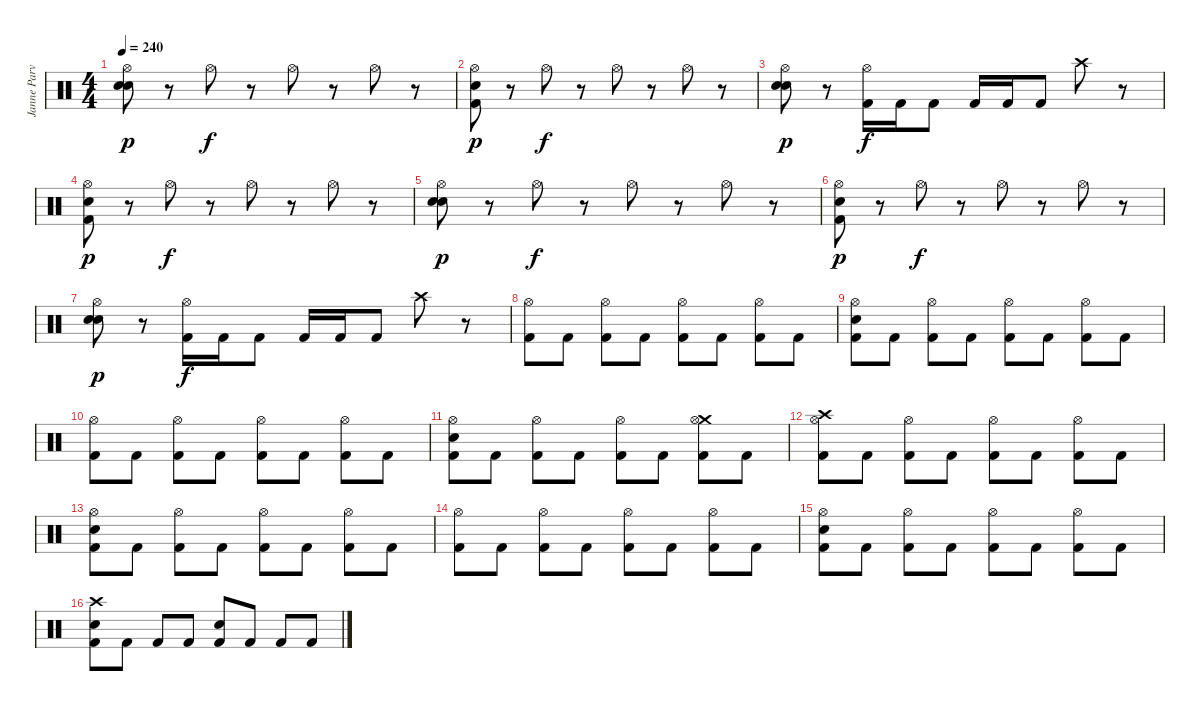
\track ("Janne Parviainen" "Janne Parv") {instrument percussion}
\staff {score}
\articulation defaults
\ts (4 4)
\tempo 240
\clef neutral
\ks c
("Electric Snare (hit)" "Hi-Hat (open)" "Snare (hit) 2").8{dy p} r.8 "Hi-Hat (open)".8{dy f} r.8 "Hi-Hat (open)".8 r.8 "Hi-Hat (open)".8 r.8 |
("Kick (hit) 2" "Hi-Hat (open)" "Snare (hit) 2").8{dy p} r.8 "Hi-Hat (open)".8{dy f} r.8 "Hi-Hat (open)".8 r.8 "Hi-Hat (open)".8 r.8 |
("Electric Snare (hit)" "Hi-Hat (open)" "Snare (hit) 2").8{dy p} r.8 ("Hi-Hat (open)" "Kick (hit) 2").16{dy f} "Kick (hit) 2".16 "Kick (hit) 2".8 "Kick (hit) 2".16 "Kick (hit) 2".16 "Kick (hit) 2".8 "Crash high (hit)".8 r.8 |
("Kick (hit) 2" "Hi-Hat (open)" "Snare (hit) 2").8{dy p} r.8 "Hi-Hat (open)".8{dy f} r.8 "Hi-Hat (open)".8 r.8 "Hi-Hat (open)".8 r.8 |
("Electric Snare (hit)" "Hi-Hat (open)" "Snare (hit) 2").8{dy p} r.8 "Hi-Hat (open)".8{dy f} r.8 "Hi-Hat (open)".8 r.8 "Hi-Hat (open)".8 r.8 |
("Kick (hit) 2" "Hi-Hat (open)" "Snare (hit) 2").8{dy p} r.8 "Hi-Hat (open)".8{dy f} r.8 "Hi-Hat (open)".8 r.8 "Hi-Hat (open)".8 r.8 |
("Electric Snare (hit)" "Hi-Hat (open)" "Snare (hit) 2").8{dy p} r.8 ("Hi-Hat (open)" "Kick (hit) 2").16{dy f} "Kick (hit) 2".16 "Kick (hit) 2".8 "Kick (hit) 2".16 "Kick (hit) 2".16 "Kick (hit) 2".8 "Crash high (hit)".8 r.8 |
("Hi-Hat (open)" "Kick (hit) 2").8 "Kick (hit) 2".8 ("Hi-Hat (open)" "Kick (hit) 2").8 "Kick (hit) 2".8 ("Hi-Hat (open)" "Kick (hit) 2").8 "Kick (hit) 2".8 ("Hi-Hat (open)" "Kick (hit) 2").8 "Kick (hit) 2".8 |
("Snare (hit) 2" "Hi-Hat (open)" "Kick (hit) 2").8 "Kick (hit) 2".8 ("Hi-Hat (open)" "Kick (hit) 2").8 "Kick (hit) 2".8 ("Hi-Hat (open)" "Kick (hit) 2").8 "Kick (hit) 2".8 ("Hi-Hat (open)" "Kick (hit) 2").8 "Kick (hit) 2".8 |
("Hi-Hat (open)" "Kick (hit) 2").8 "Kick (hit) 2".8 ("Hi-Hat (open)" "Kick (hit) 2").8 "Kick (hit) 2".8 ("Hi-Hat (open)" "Kick (hit) 2").8 "Kick (hit) 2".8 ("Hi-Hat (open)" "Kick (hit) 2").8 "Kick (hit) 2".8 |
("Snare (hit) 2" "Hi-Hat (open)" "Kick (hit) 2").8 "Kick (hit) 2".8 ("Hi-Hat (open)" "Kick (hit) 2").8 "Kick (hit) 2".8 ("Hi-Hat (open)" "Kick (hit) 2").8 "Kick (hit) 2".8 ("Crash medium (hit)" "Hi-Hat (open)" "Kick (hit) 2").8 "Kick (hit) 2".8 |
("Crash high (hit)" "Hi-Hat (open)" "Kick (hit) 2").8 "Kick (hit) 2".8 ("Hi-Hat (open)" "Kick (hit) 2").8 "Kick (hit) 2".8 ("Hi-Hat (open)" "Kick (hit) 2").8 "Kick (hit) 2".8 ("Hi-Hat (open)" "Kick (hit) 2").8 "Kick (hit) 2".8 |
("Snare (hit) 2" "Hi-Hat (open)" "Kick (hit) 2").8 "Kick (hit) 2".8 ("Hi-Hat (open)" "Kick (hit) 2").8 "Kick (hit) 2".8 ("Hi-Hat (open)" "Kick (hit) 2").8 "Kick (hit) 2".8 ("Hi-Hat (open)" "Kick (hit) 2").8 "Kick (hit) 2".8 |
("Hi-Hat (open)" "Kick (hit) 2").8 "Kick (hit) 2".8 ("Hi-Hat (open)" "Kick (hit) 2").8 "Kick (hit) 2".8 ("Hi-Hat (open)" "Kick (hit) 2").8 "Kick (hit) 2".8 ("Hi-Hat (open)" "Kick (hit) 2").8 "Kick (hit) 2".8 |
("Snare (hit) 2" "Hi-Hat (open)" "Kick (hit) 2").8 "Kick (hit) 2".8 ("Hi-Hat (open)" "Kick (hit) 2").8 "Kick (hit) 2".8 ("Hi-Hat (open)" "Kick (hit) 2").8 "Kick (hit) 2".8 ("Hi-Hat (open)" "Kick (hit) 2").8 "Kick (hit) 2".8 |
("Crash high (hit)" "Snare (hit) 2" "Kick (hit) 2").8 "Kick (hit) 2".8 "Kick (hit) 2".8 "Kick (hit) 2".8 ("Snare (hit) 2" "Kick (hit) 2").8 "Kick (hit) 2".8 "Kick (hit) 2".8 "Kick (hit) 2".8
